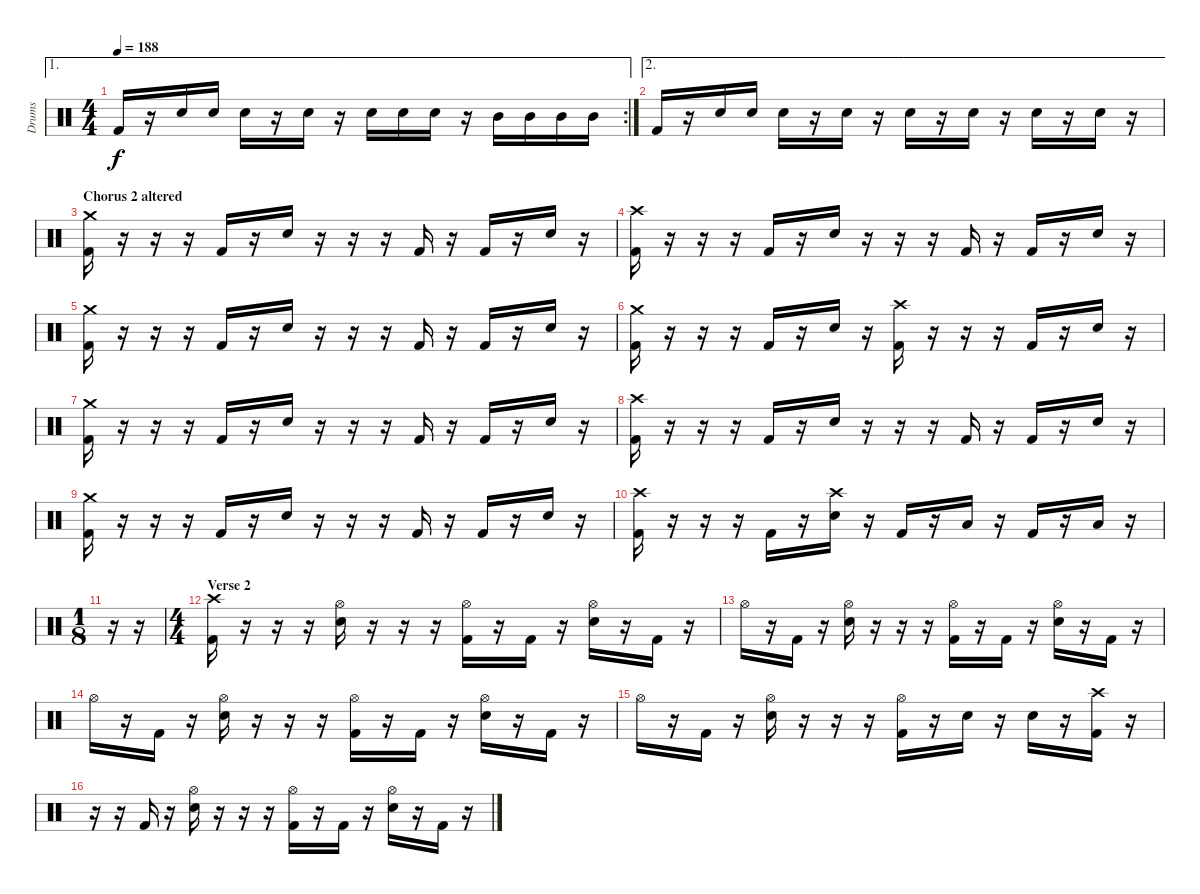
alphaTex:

\track ("Drums" "Drums") {instrument percussion}
\staff {score}
\articulation defaults
\ae 1
\rc 2
\ts (4 4)
\tempo 188
\clef neutral
\ks c "Kick (hit) 2".16{dy f}
r.16 "Electric Snare (hit)".16 "Electric Snare (hit)".16 "Electric Snare (hit)".16 r.16 "Electric Snare (hit)".16 r.16 "Electric Snare (hit)".16 "Electric Snare (hit)".16 "Electric Snare (hit)".16 r.16 "Mid Tom (hit)".16 "Mid Tom (hit)".16 "Mid Tom (hit)".16 "Mid Tom (hit)".16 |
\ae 2 "Kick (hit) 2".16
r.16 "Electric Snare (hit)".16 "Electric Snare (hit)".16 "Electric Snare (hit)".16 r.16 "Electric Snare (hit)".16 r.16 "Electric Snare (hit)".16 r.16 "Electric Snare (hit)".16 r.16 "Electric Snare (hit)".16 r.16 "Electric Snare (hit)".16 r.16 |
\section ("" "Chorus 2 altered")
("Crash medium (hit)" "Kick (hit) 2").16 r.16 r.16 r.16 "Kick (hit) 2".16 r.16 "Electric Snare (hit)".16 r.16 r.16 r.16 "Kick (hit) 2".16 r.16 "Kick (hit) 2".16 r.16 "Electric Snare (hit)".16 r.16 |
("Crash high (hit)" "Kick (hit) 2").16 r.16 r.16 r.16 "Kick (hit) 2".16 r.16 "Electric Snare (hit)".16 r.16 r.16 r.16 "Kick (hit) 2".16 r.16 "Kick (hit) 2".16 r.16 "Electric Snare (hit)".16 r.16 |
("Crash medium (hit)" "Kick (hit) 2").16 r.16 r.16 r.16 "Kick (hit) 2".16 r.16 "Electric Snare (hit)".16 r.16 r.16 r.16 "Kick (hit) 2".16 r.16 "Kick (hit) 2".16 r.16 "Electric Snare (hit)".16 r.16 |
("Crash medium (hit)" "Kick (hit) 2").16 r.16 r.16 r.16 "Kick (hit) 2".16 r.16 "Electric Snare (hit)".16 r.16 ("Crash high (hit)" "Kick (hit) 2").16 r.16 r.16 r.16 "Kick (hit) 2".16 r.16 "Electric Snare (hit)".16 r.16 |
("Crash medium (hit)" "Kick (hit) 2").16 r.16 r.16 r.16 "Kick (hit) 2".16 r.16 "Electric Snare (hit)".16 r.16 r.16 r.16 "Kick (hit) 2".16 r.16 "Kick (hit) 2".16 r.16 "Electric Snare (hit)".16 r.16 |
("Crash high (hit)" "Kick (hit) 2").16 r.16 r.16 r.16 "Kick (hit) 2".16 r.16 "Electric Snare (hit)".16 r.16 r.16 r.16 "Kick (hit) 2".16 r.16 "Kick (hit) 2".16 r.16 "Electric Snare (hit)".16 r.16 |
("Crash medium (hit)" "Kick (hit) 2").16 r.16 r.16 r.16 "Kick (hit) 2".16 r.16 "Electric Snare (hit)".16 r.16 r.16 r.16 "Kick (hit) 2".16 r.16 "Kick (hit) 2".16 r.16 "Electric Snare (hit)".16 r.16 |
("Crash high (hit)" "Kick (hit) 2").16 r.16 r.16 r.16 "Kick (hit) 2".16 r.16 ("Crash high (hit)" "Electric Snare (hit)").16 r.16 "Kick (hit) 2".16 r.16 "Low Floor Tom (hit)".16 r.16 "Kick (hit) 2".16 r.16 "Low Floor Tom (hit)".16 r.16 |
\ts (1 8)
r.16 r.16 |
\ts (4 4)
\section ("" "Verse 2")
("Crash high (hit)" "Kick (hit) 2").16 r.16 r.16 r.16 ("Hi-Hat (open)" "Electric Snare (hit)").16 r.16 r.16 r.16 ("Hi-Hat (open)" "Kick (hit) 2").16 r.16 "Kick (hit) 2".16 r.16 ("Hi-Hat (open)" "Electric Snare (hit)").16 r.16 "Kick (hit) 2".16 r.16 |
"Hi-Hat (open)".16 r.16 "Kick (hit) 2".16 r.16 ("Hi-Hat (open)" "Electric Snare (hit)").16 r.16 r.16 r.16 ("Hi-Hat (open)" "Kick (hit) 2").16 r.16 "Kick (hit) 2".16 r.16 ("Hi-Hat (open)" "Electric Snare (hit)").16 r.16 "Kick (hit) 2".16 r.16 |
"Hi-Hat (open)".16 r.16 "Kick (hit) 2".16 r.16 ("Hi-Hat (open)" "Electric Snare (hit)").16 r.16 r.16 r.16 ("Hi-Hat (open)" "Kick (hit) 2").16 r.16 "Kick (hit) 2".16 r.16 ("Hi-Hat (open)" "Electric Snare (hit)").16 r.16 "Kick (hit) 2".16 r.16 |
"Hi-Hat (open)".16 r.16 "Kick (hit) 2".16 r.16 ("Hi-Hat (open)" "Electric Snare (hit)").16 r.16 r.16 r.16 ("Hi-Hat (open)" "Kick (hit) 2").16 r.16 "Electric Snare (hit)".16 r.16 "Electric Snare (hit)".16 r.16 ("Crash high (hit)" "Kick (hit) 2").16 r.16 |
r.16 r.16 "Kick (hit) 2".16 r.16 ("Hi-Hat (open)" "Electric Snare (hit)").16 r.16 r.16 r.16 ("Hi-Hat (open)" "Kick (hit) 2").16 r.16 "Kick (hit) 2".16 r.16 ("Hi-Hat (open)" "Electric Snare (hit)").16 r.16 "Kick (hit) 2".16 r.16
